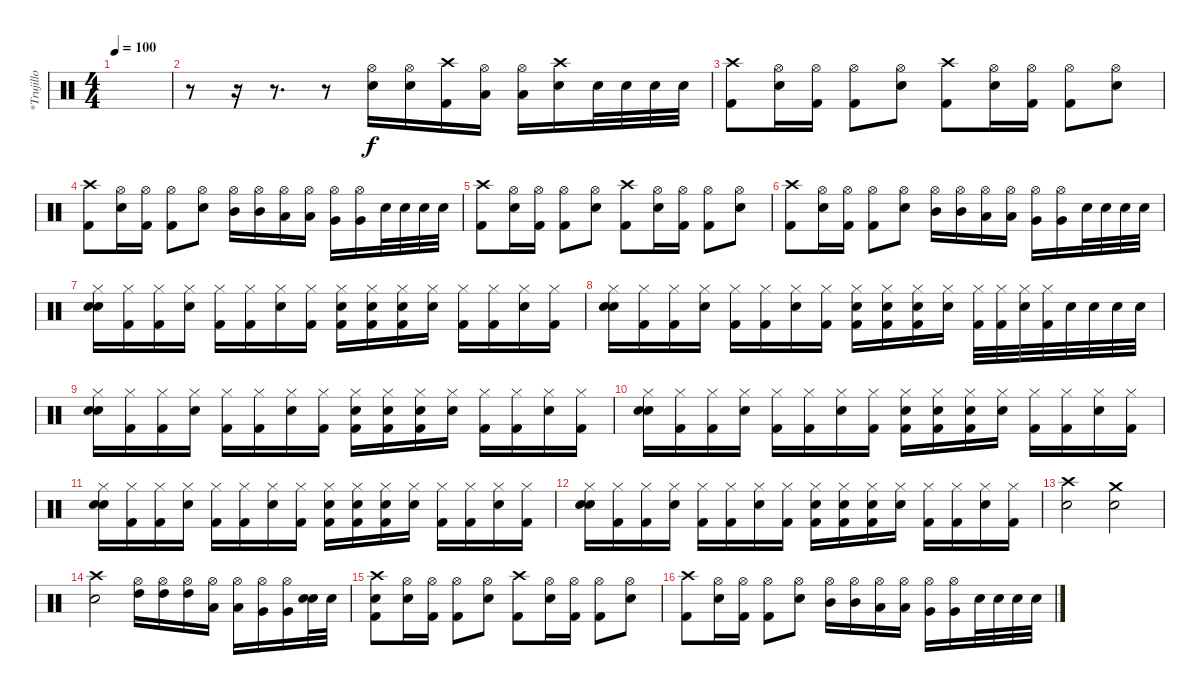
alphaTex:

\track ("*Trujillo" "*Trujillo") {instrument percussion}
\staff {score}
\articulation defaults
\ts (4 4)
\tempo 100
\clef neutral
\ks c
|
r.8 r.16 r.8{d} r.8 ("Hi-Hat (open)" "Snare (hit) 2").16 ("Hi-Hat (open)" "Snare (hit) 2").16 ("Crash high (hit)" "Kick (hit) 2").16 ("Hi-Hat (open)" "Low Tom (hit)").16 ("Hi-Hat (open)" "Low Tom (hit)").16 ("Crash high (hit)" "Electric Snare (hit)").16 "Electric Snare (hit)".32 "Electric Snare (hit)".32 "Electric Snare (hit)".32 "Electric Snare (hit)".32 |
("Crash high (hit)" "Kick (hit) 2").8 ("Hi-Hat (open)" "Electric Snare (hit)").16 ("Hi-Hat (open)" "Kick (hit) 2").16 ("Hi-Hat (open)" "Kick (hit) 2").8 ("Hi-Hat (open)" "Electric Snare (hit)").8 ("Crash high (hit)" "Kick (hit) 2").8 ("Hi-Hat (open)" "Electric Snare (hit)").16 ("Hi-Hat (open)" "Kick (hit) 2").16 ("Hi-Hat (open)" "Kick (hit) 2").8 ("Hi-Hat (open)" "Electric Snare (hit)").8 |
("Crash high (hit)" "Kick (hit) 2").8 ("Hi-Hat (open)" "Electric Snare (hit)").16 ("Hi-Hat (open)" "Kick (hit) 2").16 ("Hi-Hat (open)" "Kick (hit) 2").8 ("Hi-Hat (open)" "Electric Snare (hit)").8 ("Hi-Hat (open)" "Mid Tom (hit)").16 ("Hi-Hat (open)" "Mid Tom (hit)").16 ("Hi-Hat (open)" "Low Tom (hit)").16 ("Hi-Hat (open)" "Low Tom (hit)").16 ("Hi-Hat (open)" "Very Low Tom (hit)").16 ("Hi-Hat (open)" "Very Low Tom (hit)").16 "Electric Snare (hit)".32 "Electric Snare (hit)".32 "Electric Snare (hit)".32 "Electric Snare (hit)".32 |
("Crash high (hit)" "Kick (hit) 2").8 ("Hi-Hat (open)" "Electric Snare (hit)").16 ("Hi-Hat (open)" "Kick (hit) 2").16 ("Hi-Hat (open)" "Kick (hit) 2").8 ("Hi-Hat (open)" "Electric Snare (hit)").8 ("Crash high (hit)" "Kick (hit) 2").8 ("Hi-Hat (open)" "Electric Snare (hit)").16 ("Hi-Hat (open)" "Kick (hit) 2").16 ("Hi-Hat (open)" "Kick (hit) 2").8 ("Hi-Hat (open)" "Electric Snare (hit)").8 |
("Crash high (hit)" "Kick (hit) 2").8 ("Hi-Hat (open)" "Electric Snare (hit)").16 ("Hi-Hat (open)" "Kick (hit) 2").16 ("Hi-Hat (open)" "Kick (hit) 2").8 ("Hi-Hat (open)" "Electric Snare (hit)").8 ("Hi-Hat (open)" "Mid Tom (hit)").16 ("Hi-Hat (open)" "Mid Tom (hit)").16 ("Hi-Hat (open)" "Low Tom (hit)").16 ("Hi-Hat (open)" "Low Tom (hit)").16 ("Hi-Hat (open)" "Very Low Tom (hit)").16 ("Hi-Hat (open)" "Very Low Tom (hit)").16 "Electric Snare (hit)".32 "Electric Snare (hit)".32 "Electric Snare (hit)".32 "Electric Snare (hit)".32 |
("Hi-Hat (closed)" "Snare (hit) 2" "Electric Snare (hit)"{x}).16 ("Hi-Hat (closed)" "Kick (hit) 2").16 ("Hi-Hat (closed)" "Kick (hit) 2").16 ("Hi-Hat (closed)" "Snare (hit) 2").16 ("Hi-Hat (closed)" "Kick (hit) 2").16 ("Hi-Hat (closed)" "Kick (hit) 2").16 ("Hi-Hat (closed)" "Snare (hit) 2").16 ("Hi-Hat (closed)" "Kick (hit) 2").16 ("Hi-Hat (closed)" "Electric Snare (hit)" "Kick (hit) 2").16 ("Hi-Hat (closed)" "Electric Snare (hit)"{x} "Kick (hit) 2").16 ("Hi-Hat (closed)" "Snare (hit)" "Kick (hit) 2").16 ("Hi-Hat (closed)" "Electric Snare (hit)").16 ("Hi-Hat (closed)" "Kick (hit) 2").16 ("Hi-Hat (closed)" "Kick (hit) 2").16 ("Hi-Hat (closed)" "Electric Snare (hit)").16 ("Hi-Hat (closed)" "Kick (hit) 2").16 |
("Hi-Hat (closed)" "Snare (hit) 2" "Electric Snare (hit)"{x}).16 ("Hi-Hat (closed)" "Kick (hit) 2").16 ("Hi-Hat (closed)" "Kick (hit) 2").16 ("Hi-Hat (closed)" "Snare (hit) 2").16 ("Hi-Hat (closed)" "Kick (hit) 2").16 ("Hi-Hat (closed)" "Kick (hit) 2").16 ("Hi-Hat (closed)" "Snare (hit) 2").16 ("Hi-Hat (closed)" "Kick (hit) 2").16 ("Hi-Hat (closed)" "Electric Snare (hit)" "Kick (hit) 2").16 ("Hi-Hat (closed)" "Electric Snare (hit)"{x} "Kick (hit) 2").16 ("Hi-Hat (closed)" "Snare (hit)" "Kick (hit) 2").16 ("Hi-Hat (closed)" "Electric Snare (hit)").16 ("Hi-Hat (closed)" "Kick (hit) 2").32 ("Hi-Hat (closed)" "Kick (hit) 2").32 ("Hi-Hat (closed)" "Electric Snare (hit)").32 ("Hi-Hat (closed)" "Kick (hit) 2").32 "Electric Snare (hit)".32 "Electric Snare (hit)".32 "Electric Snare (hit)".32 "Electric Snare (hit)".32 |
("Hi-Hat (closed)" "Snare (hit) 2" "Electric Snare (hit)"{x}).16 ("Hi-Hat (closed)" "Kick (hit) 2").16 ("Hi-Hat (closed)" "Kick (hit) 2").16 ("Hi-Hat (closed)" "Snare (hit) 2").16 ("Hi-Hat (closed)" "Kick (hit) 2").16 ("Hi-Hat (closed)" "Kick (hit) 2").16 ("Hi-Hat (closed)" "Snare (hit) 2").16 ("Hi-Hat (closed)" "Kick (hit) 2").16 ("Hi-Hat (closed)" "Electric Snare (hit)" "Kick (hit) 2").16 ("Hi-Hat (closed)" "Electric Snare (hit)"{x} "Kick (hit) 2").16 ("Hi-Hat (closed)" "Snare (hit)" "Kick (hit) 2").16 ("Hi-Hat (closed)" "Electric Snare (hit)").16 ("Hi-Hat (closed)" "Kick (hit) 2").16 ("Hi-Hat (closed)" "Kick (hit) 2").16 ("Hi-Hat (closed)" "Electric Snare (hit)").16 ("Hi-Hat (closed)" "Kick (hit) 2").16 |
("Hi-Hat (closed)" "Snare (hit) 2" "Electric Snare (hit)"{x}).16 ("Hi-Hat (closed)" "Kick (hit) 2").16 ("Hi-Hat (closed)" "Kick (hit) 2").16 ("Hi-Hat (closed)" "Snare (hit) 2").16 ("Hi-Hat (closed)" "Kick (hit) 2").16 ("Hi-Hat (closed)" "Kick (hit) 2").16 ("Hi-Hat (closed)" "Snare (hit) 2").16 ("Hi-Hat (closed)" "Kick (hit) 2").16 ("Hi-Hat (closed)" "Electric Snare (hit)" "Kick (hit) 2").16 ("Hi-Hat (closed)" "Electric Snare (hit)"{x} "Kick (hit) 2").16 ("Hi-Hat (closed)" "Snare (hit)" "Kick (hit) 2").16 ("Hi-Hat (closed)" "Electric Snare (hit)").16 ("Hi-Hat (closed)" "Kick (hit) 2").16 ("Hi-Hat (closed)" "Kick (hit) 2").16 ("Hi-Hat (closed)" "Electric Snare (hit)").16 ("Hi-Hat (closed)" "Kick (hit) 2").16 |
("Hi-Hat (closed)" "Snare (hit) 2" "Electric Snare (hit)"{x}).16 ("Hi-Hat (closed)" "Kick (hit) 2").16 ("Hi-Hat (closed)" "Kick (hit) 2").16 ("Hi-Hat (closed)" "Snare (hit) 2").16 ("Hi-Hat (closed)" "Kick (hit) 2").16 ("Hi-Hat (closed)" "Kick (hit) 2").16 ("Hi-Hat (closed)" "Snare (hit) 2").16 ("Hi-Hat (closed)" "Kick (hit) 2").16 ("Hi-Hat (closed)" "Electric Snare (hit)" "Kick (hit) 2").16 ("Hi-Hat (closed)" "Electric Snare (hit)"{x} "Kick (hit) 2").16 ("Hi-Hat (closed)" "Snare (hit)" "Kick (hit) 2").16 ("Hi-Hat (closed)" "Electric Snare (hit)").16 ("Hi-Hat (closed)" "Kick (hit) 2").16 ("Hi-Hat (closed)" "Kick (hit) 2").16 ("Hi-Hat (closed)" "Electric Snare (hit)").16 ("Hi-Hat (closed)" "Kick (hit) 2").16 |
("Hi-Hat (closed)" "Snare (hit) 2" "Electric Snare (hit)"{x}).16 ("Hi-Hat (closed)" "Kick (hit) 2").16 ("Hi-Hat (closed)" "Kick (hit) 2").16 ("Hi-Hat (closed)" "Snare (hit) 2").16 ("Hi-Hat (closed)" "Kick (hit) 2").16 ("Hi-Hat (closed)" "Kick (hit) 2").16 ("Hi-Hat (closed)" "Snare (hit) 2").16 ("Hi-Hat (closed)" "Kick (hit) 2").16 ("Hi-Hat (closed)" "Electric Snare (hit)" "Kick (hit) 2").16 ("Hi-Hat (closed)" "Electric Snare (hit)"{x} "Kick (hit) 2").16 ("Hi-Hat (closed)" "Snare (hit)" "Kick (hit) 2").16 ("Hi-Hat (closed)" "Electric Snare (hit)").16 ("Hi-Hat (closed)" "Kick (hit) 2").16 ("Hi-Hat (closed)" "Kick (hit) 2").16 ("Hi-Hat (closed)" "Electric Snare (hit)").16 ("Hi-Hat (closed)" "Kick (hit) 2").16 |
("Crash high (hit)" "Electric Snare (hit)").2 ("Crash medium (hit)" "Electric Snare (hit)").2 |
("Crash high (hit)" "Electric Snare (hit)").2 ("High Tom (hit)" "Hi-Hat (open)").16 ("High Tom (hit)" "Hi-Hat (open)").16 ("High Tom (hit)" "Hi-Hat (open)").16 ("Low Tom (hit)" "Hi-Hat (open)").16 ("Low Tom (hit)" "Hi-Hat (open)").16 ("Very Low Tom (hit)" "Hi-Hat (open)").16 ("Very Low Tom (hit)" "Hi-Hat (open)").16 ("Electric Snare (hit)" "Electric Snare (hit)").32 "Electric Snare (hit)".32 |
("Electric Snare (hit)"{x} "Crash high (hit)" "Kick (hit) 2").8 ("Hi-Hat (open)" "Electric Snare (hit)").16 ("Hi-Hat (open)" "Kick (hit) 2").16 ("Hi-Hat (open)" "Kick (hit) 2").8 ("Hi-Hat (open)" "Electric Snare (hit)").8 ("Crash high (hit)" "Kick (hit) 2").8 ("Hi-Hat (open)" "Electric Snare (hit)").16 ("Hi-Hat (open)" "Kick (hit) 2").16 ("Hi-Hat (open)" "Kick (hit) 2").8 ("Hi-Hat (open)" "Electric Snare (hit)").8 |
("Crash high (hit)" "Kick (hit) 2").8 ("Hi-Hat (open)" "Electric Snare (hit)").16 ("Hi-Hat (open)" "Kick (hit) 2").16 ("Hi-Hat (open)" "Kick (hit) 2").8 ("Hi-Hat (open)" "Electric Snare (hit)").8 ("Hi-Hat (open)" "Mid Tom (hit)").16 ("Hi-Hat (open)" "Mid Tom (hit)").16 ("Hi-Hat (open)" "Low Tom (hit)").16 ("Hi-Hat (open)" "Low Tom (hit)").16 ("Hi-Hat (open)" "Very Low Tom (hit)").16 ("Hi-Hat (open)" "Very Low Tom (hit)").16 "Electric Snare (hit)".32 "Electric Snare (hit)".32 "Electric Snare (hit)".32 "Electric Snare (hit)".32
